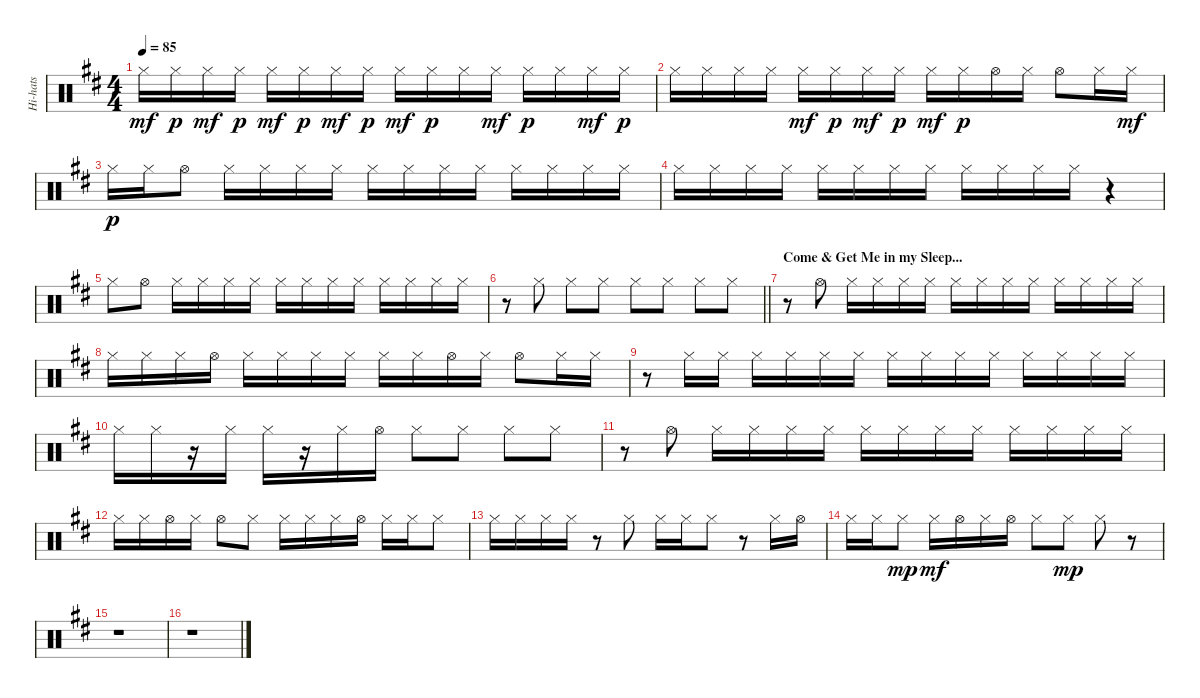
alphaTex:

\track ("Hi-hats" "Hi-hats") {instrument percussion}
\staff {score}
\articulation defaults
\ts (4 4)
\tempo 85
\clef neutral
\ks bminor "Hi-Hat (closed)".16{dy mf} "Hi-Hat (closed)".16{dy p} "Hi-Hat (closed)".16{dy mf} "Hi-Hat (closed)".16{dy p} "Hi-Hat (closed)".16{dy mf} "Hi-Hat (closed)".16{dy p} "Hi-Hat (closed)".16{dy mf} "Hi-Hat (closed)".16{dy p} "Hi-Hat (closed)".16{dy mf} "Hi-Hat (closed)".16{dy p} "Hi-Hat (closed)".16 "Hi-Hat (closed)".16{dy mf} "Hi-Hat (closed)".16{dy p} "Hi-Hat (closed)".16 "Hi-Hat (closed)".16{dy mf} "Hi-Hat (closed)".16{dy p}
|
"Hi-Hat (closed)".16 "Hi-Hat (closed)".16 "Hi-Hat (closed)".16 "Hi-Hat (closed)".16 "Hi-Hat (closed)".16{dy mf} "Hi-Hat (closed)".16{dy p} "Hi-Hat (closed)".16{dy mf} "Hi-Hat (closed)".16{dy p} "Hi-Hat (closed)".16{dy mf} "Hi-Hat (closed)".16{dy p} "Hi-Hat (open)".16 "Hi-Hat (closed)".16 "Hi-Hat (open)".8 "Hi-Hat (closed)".16 "Hi-Hat (closed)".16{dy mf} |
"Hi-Hat (closed)".16{dy p} "Hi-Hat (closed)".16 "Hi-Hat (open)".8 "Hi-Hat (closed)".16 "Hi-Hat (closed)".16 "Hi-Hat (closed)".16 "Hi-Hat (closed)".16 "Hi-Hat (closed)".16 "Hi-Hat (closed)".16 "Hi-Hat (closed)".16 "Hi-Hat (closed)".16 "Hi-Hat (closed)".16 "Hi-Hat (closed)".16 "Hi-Hat (closed)".16 "Hi-Hat (closed)".16 |
"Hi-Hat (closed)".16 "Hi-Hat (closed)".16 "Hi-Hat (closed)".16 "Hi-Hat (closed)".16 "Hi-Hat (closed)".16 "Hi-Hat (closed)".16 "Hi-Hat (closed)".16 "Hi-Hat (closed)".16 "Hi-Hat (closed)".16 "Hi-Hat (closed)".16 "Hi-Hat (closed)".16 "Hi-Hat (closed)".16 r.4 |
"Hi-Hat (closed)".8 "Hi-Hat (open)".8 "Hi-Hat (closed)".16 "Hi-Hat (closed)".16 "Hi-Hat (closed)".16 "Hi-Hat (closed)".16 "Hi-Hat (closed)".16 "Hi-Hat (closed)".16 "Hi-Hat (closed)".16 "Hi-Hat (closed)".16 "Hi-Hat (closed)".16 "Hi-Hat (closed)".16 "Hi-Hat (closed)".16 "Hi-Hat (closed)".16 |
\barLineRight lightlight
r.8 "Hi-Hat (closed)".8 "Hi-Hat (closed)".8 "Hi-Hat (closed)".8 "Hi-Hat (closed)".8 "Hi-Hat (closed)".8 "Hi-Hat (closed)".8 "Hi-Hat (closed)".8 |
\section ("" "Come & Get Me in my Sleep...")
r.8 "Hi-Hat (open)".8 "Hi-Hat (closed)".16 "Hi-Hat (closed)".16 "Hi-Hat (closed)".16 "Hi-Hat (closed)".16 "Hi-Hat (closed)".16 "Hi-Hat (closed)".16 "Hi-Hat (closed)".16 "Hi-Hat (closed)".16 "Hi-Hat (closed)".16 "Hi-Hat (closed)".16 "Hi-Hat (closed)".16 "Hi-Hat (closed)".16 |
"Hi-Hat (closed)".16 "Hi-Hat (closed)".16 "Hi-Hat (closed)".16 "Hi-Hat (open)".16 "Hi-Hat (closed)".16 "Hi-Hat (closed)".16 "Hi-Hat (closed)".16 "Hi-Hat (closed)".16 "Hi-Hat (closed)".16 "Hi-Hat (closed)".16 "Hi-Hat (open)".16 "Hi-Hat (closed)".16 "Hi-Hat (open)".8 "Hi-Hat (closed)".16 "Hi-Hat (closed)".16 |
r.8 "Hi-Hat (closed)".16 "Hi-Hat (closed)".16 "Hi-Hat (closed)".16 "Hi-Hat (closed)".16 "Hi-Hat (closed)".16 "Hi-Hat (closed)".16 "Hi-Hat (closed)".16 "Hi-Hat (closed)".16 "Hi-Hat (closed)".16 "Hi-Hat (closed)".16 "Hi-Hat (closed)".16 "Hi-Hat (closed)".16 "Hi-Hat (closed)".16 "Hi-Hat (closed)".16 |
"Hi-Hat (closed)".16 "Hi-Hat (closed)".16 r.16 "Hi-Hat (closed)".16 "Hi-Hat (closed)".16 r.16 "Hi-Hat (closed)".16 "Hi-Hat (open)".16 "Hi-Hat (closed)".8 "Hi-Hat (closed)".8 "Hi-Hat (closed)".8 "Hi-Hat (closed)".8 |
r.8 "Hi-Hat (open)".8 "Hi-Hat (closed)".16 "Hi-Hat (closed)".16 "Hi-Hat (closed)".16 "Hi-Hat (closed)".16 "Hi-Hat (closed)".16 "Hi-Hat (closed)".16 "Hi-Hat (closed)".16 "Hi-Hat (closed)".16 "Hi-Hat (closed)".16 "Hi-Hat (closed)".16 "Hi-Hat (closed)".16 "Hi-Hat (closed)".16 |
"Hi-Hat (closed)".16 "Hi-Hat (closed)".16 "Hi-Hat (open)".16 "Hi-Hat (closed)".16 "Hi-Hat (open)".8 "Hi-Hat (closed)".8 "Hi-Hat (closed)".16 "Hi-Hat (closed)".16 "Hi-Hat (closed)".16 "Hi-Hat (open)".16 "Hi-Hat (closed)".16 "Hi-Hat (closed)".16 "Hi-Hat (closed)".8 |
"Hi-Hat (closed)".16 "Hi-Hat (closed)".16 "Hi-Hat (closed)".16 "Hi-Hat (closed)".16 r.8 "Hi-Hat (closed)".8 "Hi-Hat (closed)".16 "Hi-Hat (closed)".16 "Hi-Hat (closed)".8 r.8 "Hi-Hat (closed)".16 "Hi-Hat (open)".16 |
"Hi-Hat (closed)".16 "Hi-Hat (closed)".16 "Hi-Hat (closed)".8{dy mp} "Hi-Hat (closed)".16{dy mf} "Hi-Hat (open)".16 "Hi-Hat (closed)".16 "Hi-Hat (open)".16 "Hi-Hat (closed)".8 "Hi-Hat (closed)".8{dy mp} "Hi-Hat (closed)".8 r.8 |
r.1 |
r.1
